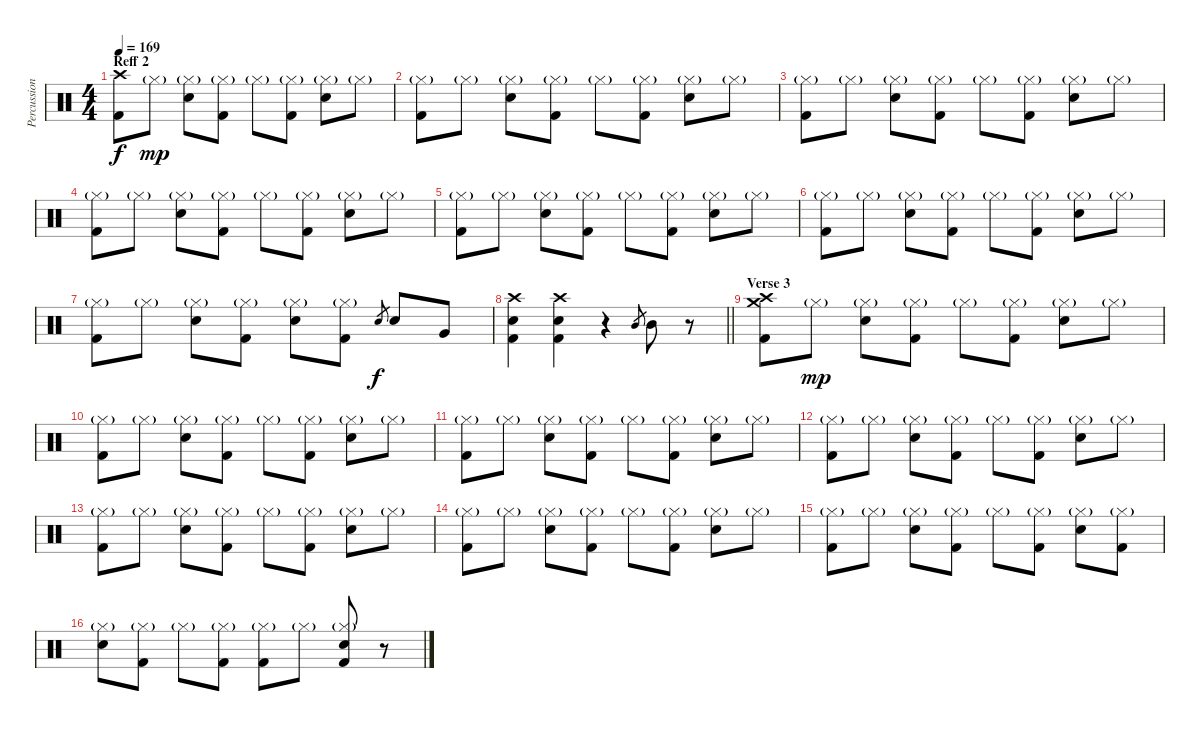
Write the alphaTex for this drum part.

\track ("Percussion" "Percussion") {instrument percussion}
\staff {score}
\articulation defaults
\ts (4 4)
\section ("" "Reff 2")
\tempo 169
\clef neutral
\ks c
("Crash high (hit)" "Kick (hit) 2").8{dy f} "Hi-Hat (closed)"{g}.8{dy mp} ("Hi-Hat (closed)"{g} "Snare (hit) 2").8 ("Hi-Hat (closed)"{g} "Kick (hit) 2").8 "Hi-Hat (closed)"{g}.8 ("Hi-Hat (closed)"{g} "Kick (hit) 2").8 ("Hi-Hat (closed)"{g} "Snare (hit) 2").8 "Hi-Hat (closed)"{g}.8 |
("Hi-Hat (closed)"{g} "Kick (hit) 2").8 "Hi-Hat (closed)"{g}.8 ("Hi-Hat (closed)"{g} "Snare (hit) 2").8 ("Hi-Hat (closed)"{g} "Kick (hit) 2").8 "Hi-Hat (closed)"{g}.8 ("Hi-Hat (closed)"{g} "Kick (hit) 2").8 ("Hi-Hat (closed)"{g} "Snare (hit) 2").8 "Hi-Hat (closed)"{g}.8 |
("Hi-Hat (closed)"{g} "Kick (hit) 2").8 "Hi-Hat (closed)"{g}.8 ("Hi-Hat (closed)"{g} "Snare (hit) 2").8 ("Hi-Hat (closed)"{g} "Kick (hit) 2").8 "Hi-Hat (closed)"{g}.8 ("Hi-Hat (closed)"{g} "Kick (hit) 2").8 ("Hi-Hat (closed)"{g} "Snare (hit) 2").8 "Hi-Hat (closed)"{g}.8 |
("Hi-Hat (closed)"{g} "Kick (hit) 2").8 "Hi-Hat (closed)"{g}.8 ("Hi-Hat (closed)"{g} "Snare (hit) 2").8 ("Hi-Hat (closed)"{g} "Kick (hit) 2").8 "Hi-Hat (closed)"{g}.8 ("Hi-Hat (closed)"{g} "Kick (hit) 2").8 ("Hi-Hat (closed)"{g} "Snare (hit) 2").8 "Hi-Hat (closed)"{g}.8 |
("Hi-Hat (closed)"{g} "Kick (hit) 2").8 "Hi-Hat (closed)"{g}.8 ("Hi-Hat (closed)"{g} "Snare (hit) 2").8 ("Hi-Hat (closed)"{g} "Kick (hit) 2").8 "Hi-Hat (closed)"{g}.8 ("Hi-Hat (closed)"{g} "Kick (hit) 2").8 ("Hi-Hat (closed)"{g} "Snare (hit) 2").8 "Hi-Hat (closed)"{g}.8 |
("Hi-Hat (closed)"{g} "Kick (hit) 2").8 "Hi-Hat (closed)"{g}.8 ("Hi-Hat (closed)"{g} "Snare (hit) 2").8 ("Hi-Hat (closed)"{g} "Kick (hit) 2").8 "Hi-Hat (closed)"{g}.8 ("Hi-Hat (closed)"{g} "Kick (hit) 2").8 ("Hi-Hat (closed)"{g} "Snare (hit) 2").8 "Hi-Hat (closed)"{g}.8 |
("Hi-Hat (closed)"{g} "Kick (hit) 2").8 "Hi-Hat (closed)"{g}.8 ("Hi-Hat (closed)"{g} "Snare (hit) 2").8 ("Hi-Hat (closed)"{g} "Kick (hit) 2").8 ("Hi-Hat (closed)"{g} "Snare (hit) 2").8 ("Hi-Hat (closed)"{g} "Kick (hit) 2").8 "Snare (hit) 2".8{gr dy f} "Snare (hit) 2".8 "Very Low Tom (hit)".8 |
\barLineRight lightlight
("Snare (hit) 2" "Crash high (hit)" "Kick (hit) 2").4 ("Snare (hit) 2" "Crash high (hit)" "Kick (hit) 2").4 r.4 "Mid Tom (hit)".8{gr} "Mid Tom (hit)".8 r.8 |
\section ("" "Verse 3")
("Crash high (hit)" "Crash medium (hit)" "Kick (hit) 2").8 "Hi-Hat (closed)"{g}.8{dy mp} ("Hi-Hat (closed)"{g} "Snare (hit) 2").8 ("Hi-Hat (closed)"{g} "Kick (hit) 2").8 "Hi-Hat (closed)"{g}.8 ("Hi-Hat (closed)"{g} "Kick (hit) 2").8 ("Hi-Hat (closed)"{g} "Snare (hit) 2").8 "Hi-Hat (closed)"{g}.8 |
("Hi-Hat (closed)"{g} "Kick (hit) 2").8 "Hi-Hat (closed)"{g}.8 ("Hi-Hat (closed)"{g} "Snare (hit) 2").8 ("Hi-Hat (closed)"{g} "Kick (hit) 2").8 "Hi-Hat (closed)"{g}.8 ("Hi-Hat (closed)"{g} "Kick (hit) 2").8 ("Hi-Hat (closed)"{g} "Snare (hit) 2").8 "Hi-Hat (closed)"{g}.8 |
("Hi-Hat (closed)"{g} "Kick (hit) 2").8 "Hi-Hat (closed)"{g}.8 ("Hi-Hat (closed)"{g} "Snare (hit) 2").8 ("Hi-Hat (closed)"{g} "Kick (hit) 2").8 "Hi-Hat (closed)"{g}.8 ("Hi-Hat (closed)"{g} "Kick (hit) 2").8 ("Hi-Hat (closed)"{g} "Snare (hit) 2").8 "Hi-Hat (closed)"{g}.8 |
("Hi-Hat (closed)"{g} "Kick (hit) 2").8 "Hi-Hat (closed)"{g}.8 ("Hi-Hat (closed)"{g} "Snare (hit) 2").8 ("Hi-Hat (closed)"{g} "Kick (hit) 2").8 "Hi-Hat (closed)"{g}.8 ("Hi-Hat (closed)"{g} "Kick (hit) 2").8 ("Hi-Hat (closed)"{g} "Snare (hit) 2").8 "Hi-Hat (closed)"{g}.8 |
("Hi-Hat (closed)"{g} "Kick (hit) 2").8 "Hi-Hat (closed)"{g}.8 ("Hi-Hat (closed)"{g} "Snare (hit) 2").8 ("Hi-Hat (closed)"{g} "Kick (hit) 2").8 "Hi-Hat (closed)"{g}.8 ("Hi-Hat (closed)"{g} "Kick (hit) 2").8 ("Hi-Hat (closed)"{g} "Snare (hit) 2").8 "Hi-Hat (closed)"{g}.8 |
("Hi-Hat (closed)"{g} "Kick (hit) 2").8 "Hi-Hat (closed)"{g}.8 ("Hi-Hat (closed)"{g} "Snare (hit) 2").8 ("Hi-Hat (closed)"{g} "Kick (hit) 2").8 "Hi-Hat (closed)"{g}.8 ("Hi-Hat (closed)"{g} "Kick (hit) 2").8 ("Hi-Hat (closed)"{g} "Snare (hit) 2").8 "Hi-Hat (closed)"{g}.8 |
("Hi-Hat (closed)"{g} "Kick (hit) 2").8 "Hi-Hat (closed)"{g}.8 ("Hi-Hat (closed)"{g} "Snare (hit) 2").8 ("Hi-Hat (closed)"{g} "Kick (hit) 2").8 "Hi-Hat (closed)"{g}.8 ("Hi-Hat (closed)"{g} "Kick (hit) 2").8 ("Hi-Hat (closed)"{g} "Snare (hit) 2").8 ("Hi-Hat (closed)"{g} "Kick (hit) 2").8 |
("Hi-Hat (closed)"{g} "Snare (hit) 2").8 ("Hi-Hat (closed)"{g} "Kick (hit) 2").8 "Hi-Hat (closed)"{g}.8 ("Hi-Hat (closed)"{g} "Kick (hit) 2").8 ("Hi-Hat (closed)"{g} "Kick (hit) 2").8 "Hi-Hat (closed)"{g}.8 ("Hi-Hat (closed)"{g} "Snare (hit) 2" "Kick (hit) 2").8 r.8
